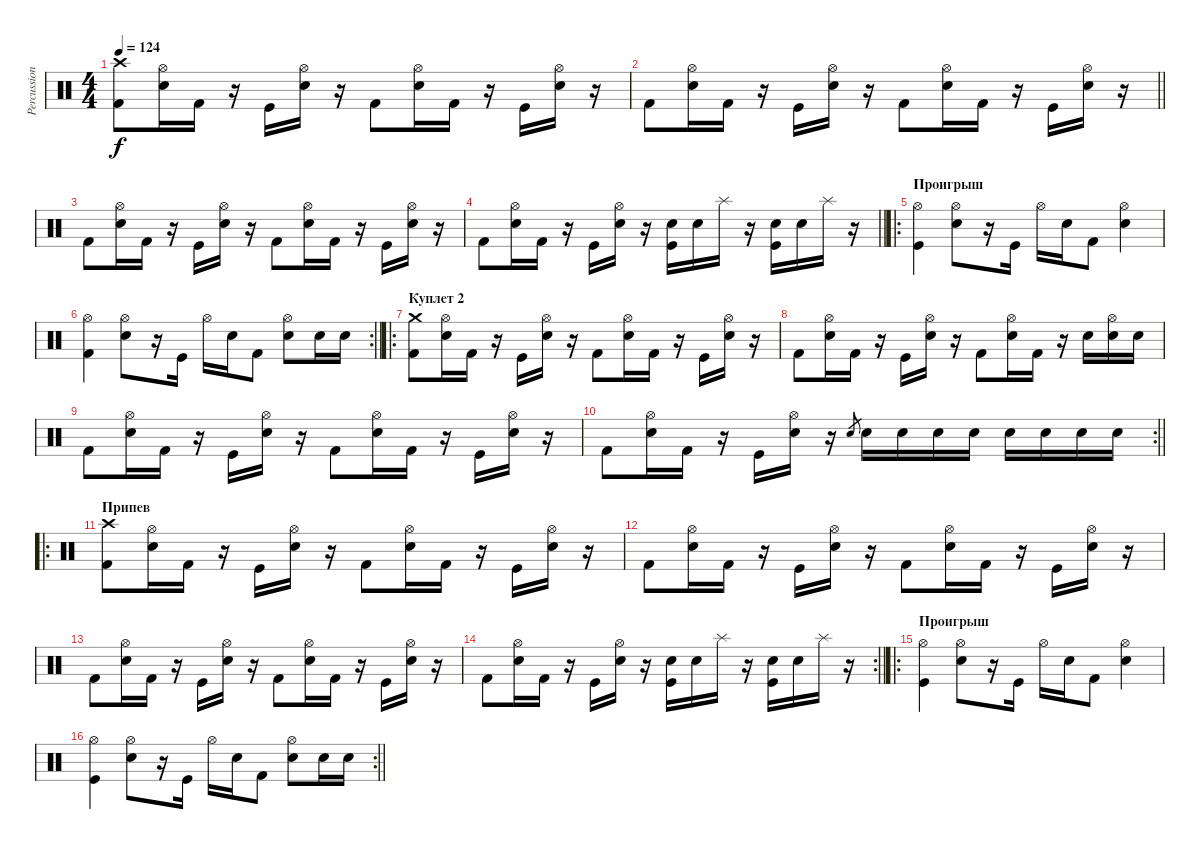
\track ("Percussion" "Percussion") {instrument percussion}
\staff {score}
\articulation defaults
\ts (4 4)
\tempo 124
\clef neutral
\ks c
("Crash high (hit)" "Kick (hit) 2").8{dy f} ("Hi-Hat (open)" "Snare (hit) 2").16 "Kick (hit) 2".16 r.16 "Kick (hit)".16 ("Hi-Hat (open)" "Snare (hit) 2").16 r.16 "Kick (hit) 2".8 ("Hi-Hat (open)" "Snare (hit) 2").16 "Kick (hit) 2".16 r.16 "Kick (hit)".16 ("Hi-Hat (open)" "Snare (hit) 2").16 r.16 |
\barLineRight lightlight "Kick (hit) 2".8
("Hi-Hat (open)" "Snare (hit) 2").16 "Kick (hit) 2".16 r.16 "Kick (hit)".16 ("Hi-Hat (open)" "Snare (hit) 2").16 r.16 "Kick (hit) 2".8 ("Hi-Hat (open)" "Snare (hit) 2").16 "Kick (hit) 2".16 r.16 "Kick (hit)".16 ("Hi-Hat (open)" "Snare (hit) 2").16 r.16 |
"Kick (hit) 2".8 ("Hi-Hat (open)" "Snare (hit) 2").16 "Kick (hit) 2".16 r.16 "Kick (hit)".16 ("Hi-Hat (open)" "Snare (hit) 2").16 r.16 "Kick (hit) 2".8 ("Hi-Hat (open)" "Snare (hit) 2").16 "Kick (hit) 2".16 r.16 "Kick (hit)".16 ("Hi-Hat (open)" "Snare (hit) 2").16 r.16 |
\barLineRight lightlight "Kick (hit) 2".8
("Hi-Hat (open)" "Snare (hit) 2").16 "Kick (hit) 2".16 r.16 "Kick (hit)".16 ("Hi-Hat (open)" "Snare (hit) 2").16 r.16 ("Electric Snare (hit)" "Kick (hit)").16 "Electric Snare (hit)".16 "Splash (hit)".16 r.16 ("Snare (hit) 2" "Kick (hit)").16 "Snare (hit) 2".16 "Splash (hit)".16 r.16 |
\ro
\section ("" "Проигрыш")
("Hi-Hat (open)" "Kick (hit)").4 ("Hi-Hat (open)" "Snare (hit) 2").8 r.16 "Kick (hit)".16 "Hi-Hat (open)".16 "Snare (hit) 2".16 "Kick (hit) 2".8 ("Hi-Hat (open)" "Snare (hit) 2").4 |
\rc 2
\barLineRight lightlight
("Hi-Hat (open)" "Kick (hit) 2").4 ("Hi-Hat (open)" "Snare (hit) 2").8 r.16 "Kick (hit)".16 "Hi-Hat (open)".16 "Snare (hit) 2".16 "Kick (hit) 2".8 ("Hi-Hat (open)" "Snare (hit) 2").8 "Snare (hit) 2".16 "Snare (hit) 2".16 |
\ro
\section ("" "Куплет 2")
("Crash medium (hit)" "Kick (hit) 2").8 ("Hi-Hat (open)" "Snare (hit) 2").16 "Kick (hit) 2".16 r.16 "Kick (hit)".16 ("Hi-Hat (open)" "Snare (hit) 2").16 r.16 "Kick (hit) 2".8 ("Hi-Hat (open)" "Snare (hit) 2").16 "Kick (hit) 2".16 r.16 "Kick (hit)".16 ("Hi-Hat (open)" "Snare (hit) 2").16 r.16 |
"Kick (hit) 2".8 ("Hi-Hat (open)" "Snare (hit) 2").16 "Kick (hit) 2".16 r.16 "Kick (hit)".16 ("Hi-Hat (open)" "Snare (hit) 2").16 r.16 "Kick (hit) 2".8 ("Hi-Hat (open)" "Snare (hit) 2").16 "Kick (hit) 2".16 r.16 "Snare (hit) 2".16 ("Hi-Hat (open)" "Electric Snare (hit)").16 "Snare (hit) 2".16 |
"Kick (hit) 2".8 ("Hi-Hat (open)" "Snare (hit) 2").16 "Kick (hit) 2".16 r.16 "Kick (hit)".16 ("Hi-Hat (open)" "Snare (hit) 2").16 r.16 "Kick (hit) 2".8 ("Hi-Hat (open)" "Snare (hit) 2").16 "Kick (hit) 2".16 r.16 "Kick (hit)".16 ("Hi-Hat (open)" "Snare (hit) 2").16 r.16 |
\rc 2
\barLineRight lightlight "Kick (hit) 2".8
("Hi-Hat (open)" "Snare (hit) 2").16 "Kick (hit) 2".16 r.16 "Kick (hit)".16 ("Hi-Hat (open)" "Snare (hit) 2").16 r.16 "Electric Snare (hit)".8{gr} "Electric Snare (hit)".16 "Electric Snare (hit)".16 "Electric Snare (hit)".16 "Electric Snare (hit)".16 "Snare (hit) 2".16 "Snare (hit) 2".16 "Snare (hit) 2".16 "Snare (hit) 2".16 |
\ro
\section ("" "Припев")
("Crash high (hit)" "Kick (hit) 2").8 ("Hi-Hat (open)" "Snare (hit) 2").16 "Kick (hit) 2".16 r.16 "Kick (hit)".16 ("Hi-Hat (open)" "Snare (hit) 2").16 r.16 "Kick (hit) 2".8 ("Hi-Hat (open)" "Snare (hit) 2").16 "Kick (hit) 2".16 r.16 "Kick (hit)".16 ("Hi-Hat (open)" "Snare (hit) 2").16 r.16 |
"Kick (hit) 2".8 ("Hi-Hat (open)" "Snare (hit) 2").16 "Kick (hit) 2".16 r.16 "Kick (hit)".16 ("Hi-Hat (open)" "Snare (hit) 2").16 r.16 "Kick (hit) 2".8 ("Hi-Hat (open)" "Snare (hit) 2").16 "Kick (hit) 2".16 r.16 "Kick (hit)".16 ("Hi-Hat (open)" "Snare (hit) 2").16 r.16 |
"Kick (hit) 2".8 ("Hi-Hat (open)" "Snare (hit) 2").16 "Kick (hit) 2".16 r.16 "Kick (hit)".16 ("Hi-Hat (open)" "Snare (hit) 2").16 r.16 "Kick (hit) 2".8 ("Hi-Hat (open)" "Snare (hit) 2").16 "Kick (hit) 2".16 r.16 "Kick (hit)".16 ("Hi-Hat (open)" "Snare (hit) 2").16 r.16 |
\rc 2
\barLineRight lightlight "Kick (hit) 2".8
("Hi-Hat (open)" "Snare (hit) 2").16 "Kick (hit) 2".16 r.16 "Kick (hit)".16 ("Hi-Hat (open)" "Snare (hit) 2").16 r.16 ("Electric Snare (hit)" "Kick (hit)").16 "Electric Snare (hit)".16 "Splash (hit)".16 r.16 ("Snare (hit) 2" "Kick (hit)").16 "Snare (hit) 2".16 "Splash (hit)".16 r.16 |
\ro
\section ("" "Проигрыш")
("Hi-Hat (open)" "Kick (hit)").4 ("Hi-Hat (open)" "Snare (hit) 2").8 r.16 "Kick (hit)".16 "Hi-Hat (open)".16 "Snare (hit) 2".16 "Kick (hit) 2".8 ("Hi-Hat (open)" "Snare (hit) 2").4 |
\rc 2
\barLineRight lightlight
("Hi-Hat (open)" "Kick (hit)").4 ("Hi-Hat (open)" "Snare (hit) 2").8 r.16 "Kick (hit)".16 "Hi-Hat (open)".16 "Snare (hit) 2".16 "Kick (hit) 2".8 ("Hi-Hat (open)" "Snare (hit) 2").8 "Snare (hit) 2".16 "Snare (hit) 2".16
